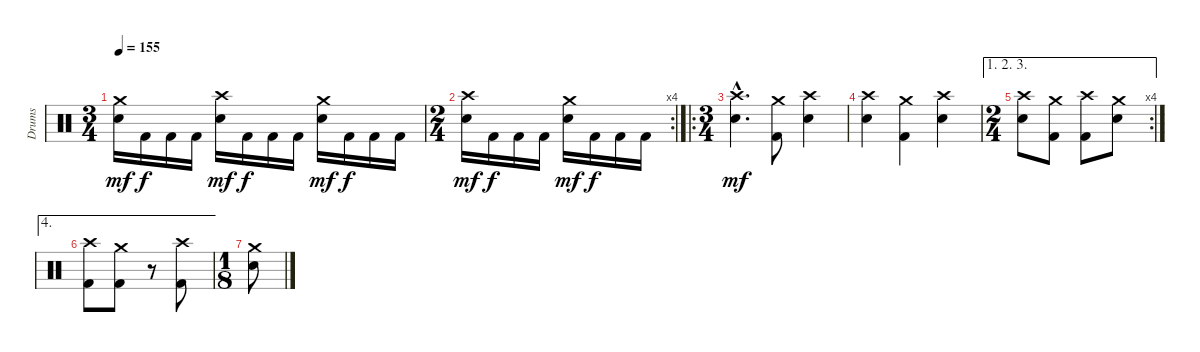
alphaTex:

\track ("Drums" "Drums") {instrument percussion}
\staff {score}
\articulation defaults
\ts (3 4)
\tempo 155
\clef neutral
\ks c
("Crash medium (hit)" "Snare (hit) 2").16{dy mf} "Kick (hit) 2".16{dy f} "Kick (hit) 2".16 "Kick (hit) 2".16 ("Crash high (hit)" "Snare (hit) 2").16{dy mf} "Kick (hit) 2".16{dy f} "Kick (hit) 2".16 "Kick (hit) 2".16 ("Crash medium (hit)" "Snare (hit) 2").16{dy mf} "Kick (hit) 2".16{dy f} "Kick (hit) 2".16 "Kick (hit) 2".16 |
\rc 4
\ts (2 4)
("Crash high (hit)" "Snare (hit) 2").16{dy mf} "Kick (hit) 2".16{dy f} "Kick (hit) 2".16 "Kick (hit) 2".16 ("Crash medium (hit)" "Snare (hit) 2").16{dy mf} "Kick (hit) 2".16{dy f} "Kick (hit) 2".16 "Kick (hit) 2".16 |
\ro
\ts (3 4)
("Crash high (hit)"{hac} "Snare (hit) 2"{hac}).4{d dy mf} ("Crash medium (hit)" "Kick (hit) 2").8 ("Crash high (hit)" "Snare (hit) 2").4 |
("Crash high (hit)" "Snare (hit) 2").4 ("Crash medium (hit)" "Kick (hit) 2").4 ("Crash high (hit)" "Snare (hit) 2").4 |
\ae (1 2 3)
\rc 4
\ts (2 4)
("Crash high (hit)" "Snare (hit) 2").8 ("Crash medium (hit)" "Kick (hit) 2").8 ("Crash high (hit)" "Kick (hit) 2").8 ("Crash medium (hit)" "Snare (hit) 2").8 |
\ae 4
("Crash high (hit)" "Kick (hit) 2").8 ("Crash medium (hit)" "Kick (hit) 2").8 r.8 ("Crash high (hit)" "Kick (hit) 2").8 |
\ts (1 8)
("Crash medium (hit)" "Snare (hit) 2").8
